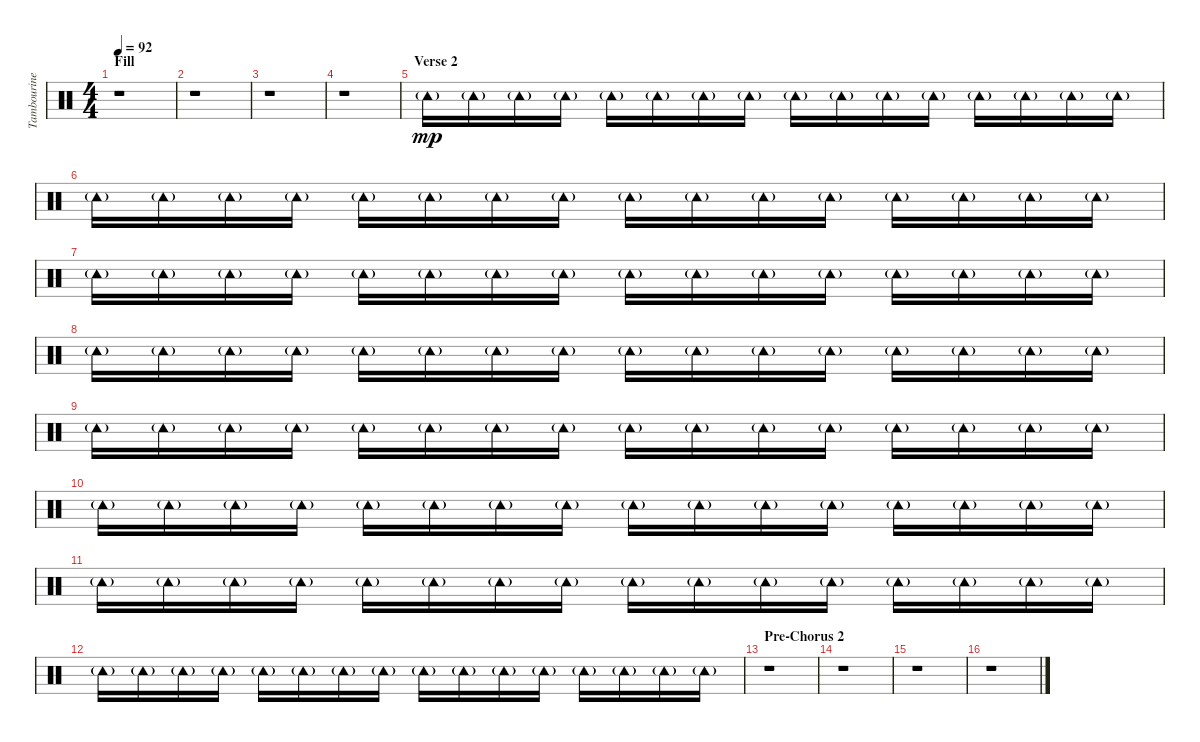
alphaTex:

\track ("Tambourine" "Tambourine") {instrument percussion}
\staff {score}
\articulation defaults
\ts (4 4)
\section ("" "Fill")
\tempo 92
\clef neutral
\ks c
r.1{dy mp} |
r.1 |
r.1 |
r.1 |
\section ("" "Verse 2")
"Tambourine (hit)"{g}.16 "Tambourine (hit)"{g}.16 "Tambourine (hit)"{g}.16 "Tambourine (hit)"{g}.16 "Tambourine (hit)"{g}.16 "Tambourine (hit)"{g}.16 "Tambourine (hit)"{g}.16 "Tambourine (hit)"{g}.16 "Tambourine (hit)"{g}.16 "Tambourine (hit)"{g}.16 "Tambourine (hit)"{g}.16 "Tambourine (hit)"{g}.16 "Tambourine (hit)"{g}.16 "Tambourine (hit)"{g}.16 "Tambourine (hit)"{g}.16 "Tambourine (hit)"{g}.16 |
"Tambourine (hit)"{g}.16 "Tambourine (hit)"{g}.16 "Tambourine (hit)"{g}.16 "Tambourine (hit)"{g}.16 "Tambourine (hit)"{g}.16 "Tambourine (hit)"{g}.16 "Tambourine (hit)"{g}.16 "Tambourine (hit)"{g}.16 "Tambourine (hit)"{g}.16 "Tambourine (hit)"{g}.16 "Tambourine (hit)"{g}.16 "Tambourine (hit)"{g}.16 "Tambourine (hit)"{g}.16 "Tambourine (hit)"{g}.16 "Tambourine (hit)"{g}.16 "Tambourine (hit)"{g}.16 |
"Tambourine (hit)"{g}.16 "Tambourine (hit)"{g}.16 "Tambourine (hit)"{g}.16 "Tambourine (hit)"{g}.16 "Tambourine (hit)"{g}.16 "Tambourine (hit)"{g}.16 "Tambourine (hit)"{g}.16 "Tambourine (hit)"{g}.16 "Tambourine (hit)"{g}.16 "Tambourine (hit)"{g}.16 "Tambourine (hit)"{g}.16 "Tambourine (hit)"{g}.16 "Tambourine (hit)"{g}.16 "Tambourine (hit)"{g}.16 "Tambourine (hit)"{g}.16 "Tambourine (hit)"{g}.16 |
"Tambourine (hit)"{g}.16 "Tambourine (hit)"{g}.16 "Tambourine (hit)"{g}.16 "Tambourine (hit)"{g}.16 "Tambourine (hit)"{g}.16 "Tambourine (hit)"{g}.16 "Tambourine (hit)"{g}.16 "Tambourine (hit)"{g}.16 "Tambourine (hit)"{g}.16 "Tambourine (hit)"{g}.16 "Tambourine (hit)"{g}.16 "Tambourine (hit)"{g}.16 "Tambourine (hit)"{g}.16 "Tambourine (hit)"{g}.16 "Tambourine (hit)"{g}.16 "Tambourine (hit)"{g}.16 |
"Tambourine (hit)"{g}.16 "Tambourine (hit)"{g}.16 "Tambourine (hit)"{g}.16 "Tambourine (hit)"{g}.16 "Tambourine (hit)"{g}.16 "Tambourine (hit)"{g}.16 "Tambourine (hit)"{g}.16 "Tambourine (hit)"{g}.16 "Tambourine (hit)"{g}.16 "Tambourine (hit)"{g}.16 "Tambourine (hit)"{g}.16 "Tambourine (hit)"{g}.16 "Tambourine (hit)"{g}.16 "Tambourine (hit)"{g}.16 "Tambourine (hit)"{g}.16 "Tambourine (hit)"{g}.16 |
"Tambourine (hit)"{g}.16 "Tambourine (hit)"{g}.16 "Tambourine (hit)"{g}.16 "Tambourine (hit)"{g}.16 "Tambourine (hit)"{g}.16 "Tambourine (hit)"{g}.16 "Tambourine (hit)"{g}.16 "Tambourine (hit)"{g}.16 "Tambourine (hit)"{g}.16 "Tambourine (hit)"{g}.16 "Tambourine (hit)"{g}.16 "Tambourine (hit)"{g}.16 "Tambourine (hit)"{g}.16 "Tambourine (hit)"{g}.16 "Tambourine (hit)"{g}.16 "Tambourine (hit)"{g}.16 |
"Tambourine (hit)"{g}.16 "Tambourine (hit)"{g}.16 "Tambourine (hit)"{g}.16 "Tambourine (hit)"{g}.16 "Tambourine (hit)"{g}.16 "Tambourine (hit)"{g}.16 "Tambourine (hit)"{g}.16 "Tambourine (hit)"{g}.16 "Tambourine (hit)"{g}.16 "Tambourine (hit)"{g}.16 "Tambourine (hit)"{g}.16 "Tambourine (hit)"{g}.16 "Tambourine (hit)"{g}.16 "Tambourine (hit)"{g}.16 "Tambourine (hit)"{g}.16 "Tambourine (hit)"{g}.16 |
"Tambourine (hit)"{g}.16 "Tambourine (hit)"{g}.16 "Tambourine (hit)"{g}.16 "Tambourine (hit)"{g}.16 "Tambourine (hit)"{g}.16 "Tambourine (hit)"{g}.16 "Tambourine (hit)"{g}.16 "Tambourine (hit)"{g}.16 "Tambourine (hit)"{g}.16 "Tambourine (hit)"{g}.16 "Tambourine (hit)"{g}.16 "Tambourine (hit)"{g}.16 "Tambourine (hit)"{g}.16 "Tambourine (hit)"{g}.16 "Tambourine (hit)"{g}.16 "Tambourine (hit)"{g}.16 |
\section ("" "Pre-Chorus 2")
r.1 |
r.1 |
r.1 |
r.1
